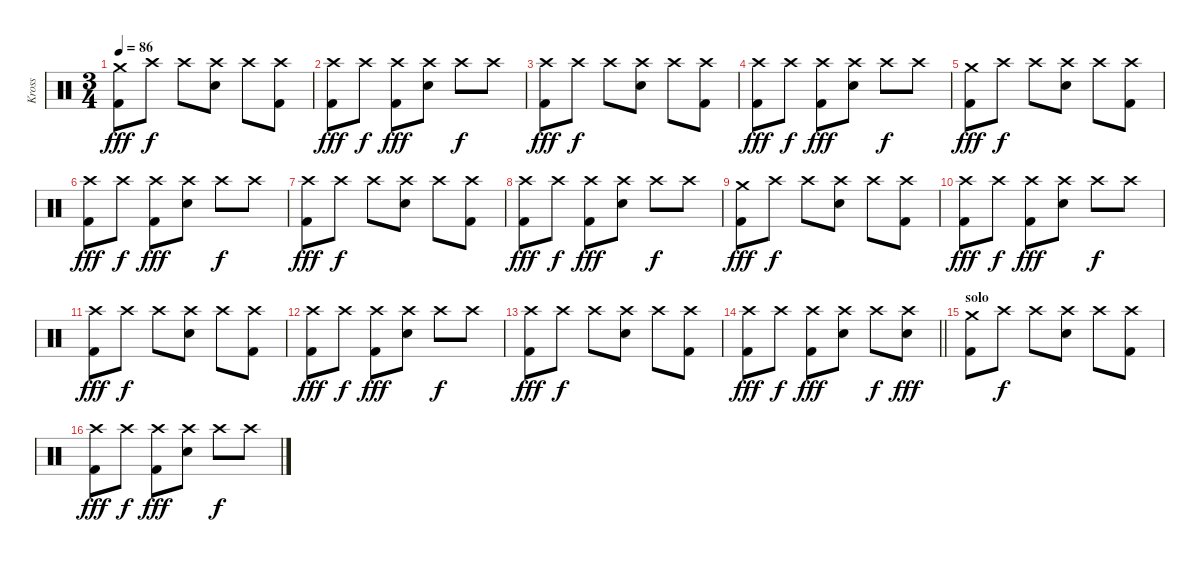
\track ("Kross" "Kross") {instrument percussion}
\staff {score}
\articulation defaults
\ts (3 4)
\tempo 86
\clef neutral
\ks c
("Crash medium (hit)" "Kick (hit) 2").8{dy fff} "Crash high (hit)".8{dy f} "Crash high (hit)".8 ("Crash high (hit)" "Electric Snare (hit)").8 "Crash high (hit)".8 ("Crash high (hit)" "Kick (hit) 2").8 |
("Crash high (hit)" "Kick (hit) 2").8{dy fff} "Crash high (hit)".8{dy f} ("Crash high (hit)" "Kick (hit) 2").8{dy fff} ("Crash high (hit)" "Electric Snare (hit)").8 "Crash high (hit)".8{dy f} "Crash high (hit)".8 |
("Crash high (hit)" "Kick (hit) 2").8{dy fff} "Crash high (hit)".8{dy f} "Crash high (hit)".8 ("Crash high (hit)" "Electric Snare (hit)").8 "Crash high (hit)".8 ("Crash high (hit)" "Kick (hit) 2").8 |
("Crash high (hit)" "Kick (hit) 2").8{dy fff} "Crash high (hit)".8{dy f} ("Crash high (hit)" "Kick (hit) 2").8{dy fff} ("Crash high (hit)" "Electric Snare (hit)").8 "Crash high (hit)".8{dy f} "Crash high (hit)".8 |
("Crash medium (hit)" "Kick (hit) 2").8{dy fff} "Crash high (hit)".8{dy f} "Crash high (hit)".8 ("Crash high (hit)" "Electric Snare (hit)").8 "Crash high (hit)".8 ("Crash high (hit)" "Kick (hit) 2").8 |
("Crash high (hit)" "Kick (hit) 2").8{dy fff} "Crash high (hit)".8{dy f} ("Crash high (hit)" "Kick (hit) 2").8{dy fff} ("Crash high (hit)" "Electric Snare (hit)").8 "Crash high (hit)".8{dy f} "Crash high (hit)".8 |
("Crash high (hit)" "Kick (hit) 2").8{dy fff} "Crash high (hit)".8{dy f} "Crash high (hit)".8 ("Crash high (hit)" "Electric Snare (hit)").8 "Crash high (hit)".8 ("Crash high (hit)" "Kick (hit) 2").8 |
("Crash high (hit)" "Kick (hit) 2").8{dy fff} "Crash high (hit)".8{dy f} ("Crash high (hit)" "Kick (hit) 2").8{dy fff} ("Crash high (hit)" "Electric Snare (hit)").8 "Crash high (hit)".8{dy f} "Crash high (hit)".8 |
("Crash medium (hit)" "Kick (hit) 2").8{dy fff} "Crash high (hit)".8{dy f} "Crash high (hit)".8 ("Crash high (hit)" "Electric Snare (hit)").8 "Crash high (hit)".8 ("Crash high (hit)" "Kick (hit) 2").8 |
("Crash high (hit)" "Kick (hit) 2").8{dy fff} "Crash high (hit)".8{dy f} ("Crash high (hit)" "Kick (hit) 2").8{dy fff} ("Crash high (hit)" "Electric Snare (hit)").8 "Crash high (hit)".8{dy f} "Crash high (hit)".8 |
("Crash high (hit)" "Kick (hit) 2").8{dy fff} "Crash high (hit)".8{dy f} "Crash high (hit)".8 ("Crash high (hit)" "Electric Snare (hit)").8 "Crash high (hit)".8 ("Crash high (hit)" "Kick (hit) 2").8 |
("Crash high (hit)" "Kick (hit) 2").8{dy fff} "Crash high (hit)".8{dy f} ("Crash high (hit)" "Kick (hit) 2").8{dy fff} ("Crash high (hit)" "Electric Snare (hit)").8 "Crash high (hit)".8{dy f} "Crash high (hit)".8 |
("Crash high (hit)" "Kick (hit) 2").8{dy fff} "Crash high (hit)".8{dy f} "Crash high (hit)".8 ("Crash high (hit)" "Electric Snare (hit)").8 "Crash high (hit)".8 ("Crash high (hit)" "Kick (hit) 2").8 |
\barLineRight lightlight
("Crash high (hit)" "Kick (hit) 2").8{dy fff} "Crash high (hit)".8{dy f} ("Crash high (hit)" "Kick (hit) 2").8{dy fff} ("Crash high (hit)" "Electric Snare (hit)").8 "Crash high (hit)".8{dy f} ("Crash high (hit)" "Electric Snare (hit)").8{dy fff} |
\section ("" "solo")
("Crash medium (hit)" "Kick (hit) 2").8 "Crash high (hit)".8{dy f} "Crash high (hit)".8 ("Crash high (hit)" "Electric Snare (hit)").8 "Crash high (hit)".8 ("Crash high (hit)" "Kick (hit) 2").8 |
("Crash high (hit)" "Kick (hit) 2").8{dy fff} "Crash high (hit)".8{dy f} ("Crash high (hit)" "Kick (hit) 2").8{dy fff} ("Crash high (hit)" "Electric Snare (hit)").8 "Crash high (hit)".8{dy f} "Crash high (hit)".8
